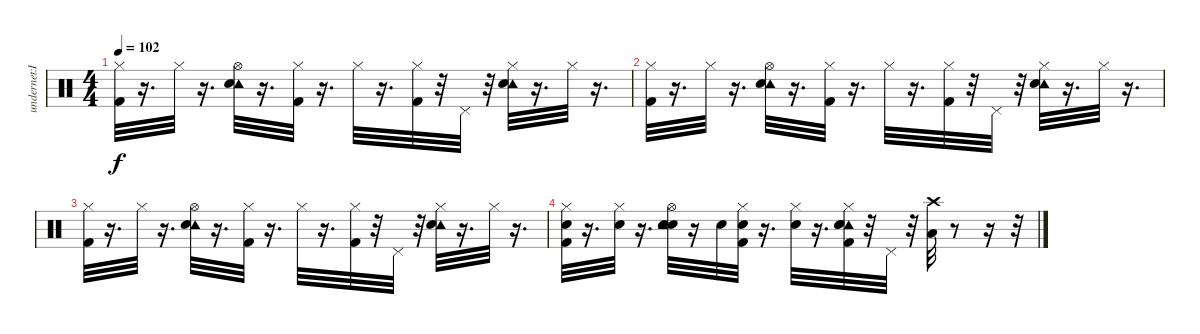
\track ("undernet:IRC:bong21" "undernet:I") {instrument percussion}
\staff {score}
\articulation defaults
\ts (4 4)
\tempo 102
\clef neutral
\ks c
("Hi-Hat (closed)" "Kick (hit) 2").32{dy f} r.16{d} "Hi-Hat (closed)".32 r.16{d} ("Tambourine (hit)" "Hi-Hat (open)" "Electric Snare (hit)").32 r.16{d} ("Hi-Hat (closed)" "Kick (hit) 2").32 r.16{d} "Hi-Hat (closed)".32 r.16{d} ("Hi-Hat (closed)" "Kick (hit) 2").32 r.32 "Pedal Hi-Hat (hit)".32 r.32 ("Tambourine (hit)" "Hi-Hat (closed)" "Electric Snare (hit)").32 r.16{d} "Hi-Hat (closed)".32 r.16{d} |
("Hi-Hat (closed)" "Kick (hit) 2").32 r.16{d} "Hi-Hat (closed)".32 r.16{d} ("Tambourine (hit)" "Hi-Hat (open)" "Electric Snare (hit)").32 r.16{d} ("Hi-Hat (closed)" "Kick (hit) 2").32 r.16{d} "Hi-Hat (closed)".32 r.16{d} ("Hi-Hat (closed)" "Kick (hit) 2").32 r.32 "Pedal Hi-Hat (hit)".32 r.32 ("Tambourine (hit)" "Hi-Hat (closed)" "Electric Snare (hit)").32 r.16{d} "Hi-Hat (closed)".32 r.16{d} |
("Hi-Hat (closed)" "Kick (hit) 2").32 r.16{d} "Hi-Hat (closed)".32 r.16{d} ("Tambourine (hit)" "Hi-Hat (open)" "Electric Snare (hit)").32 r.16{d} ("Hi-Hat (closed)" "Kick (hit) 2").32 r.16{d} "Hi-Hat (closed)".32 r.16{d} ("Hi-Hat (closed)" "Kick (hit) 2").32 r.32 "Pedal Hi-Hat (hit)".32 r.32 ("Tambourine (hit)" "Hi-Hat (closed)" "Electric Snare (hit)").32 r.16{d} "Hi-Hat (closed)".32 r.16{d} |
("Snare (hit) 2" "Hi-Hat (closed)" "Kick (hit) 2").32 r.16{d} ("Snare (hit) 2" "Hi-Hat (closed)").32 r.16{d} ("Snare (hit) 2" "Tambourine (hit)" "Hi-Hat (open)" "Electric Snare (hit)").32 r.16 "Snare (hit) 2".32 ("Snare (hit) 2" "Hi-Hat (closed)" "Kick (hit) 2").32 r.16{d} ("Snare (hit) 2" "Hi-Hat (closed)").32 r.16{d} ("Tambourine (hit)" "Electric Snare (hit)" "Snare (hit) 2" "Hi-Hat (closed)" "Kick (hit) 2").32 r.32 "Pedal Hi-Hat (hit)".32 r.32 ("Low Floor Tom (hit)" "Crash high (hit)").32 r.8 r.16 r.32
